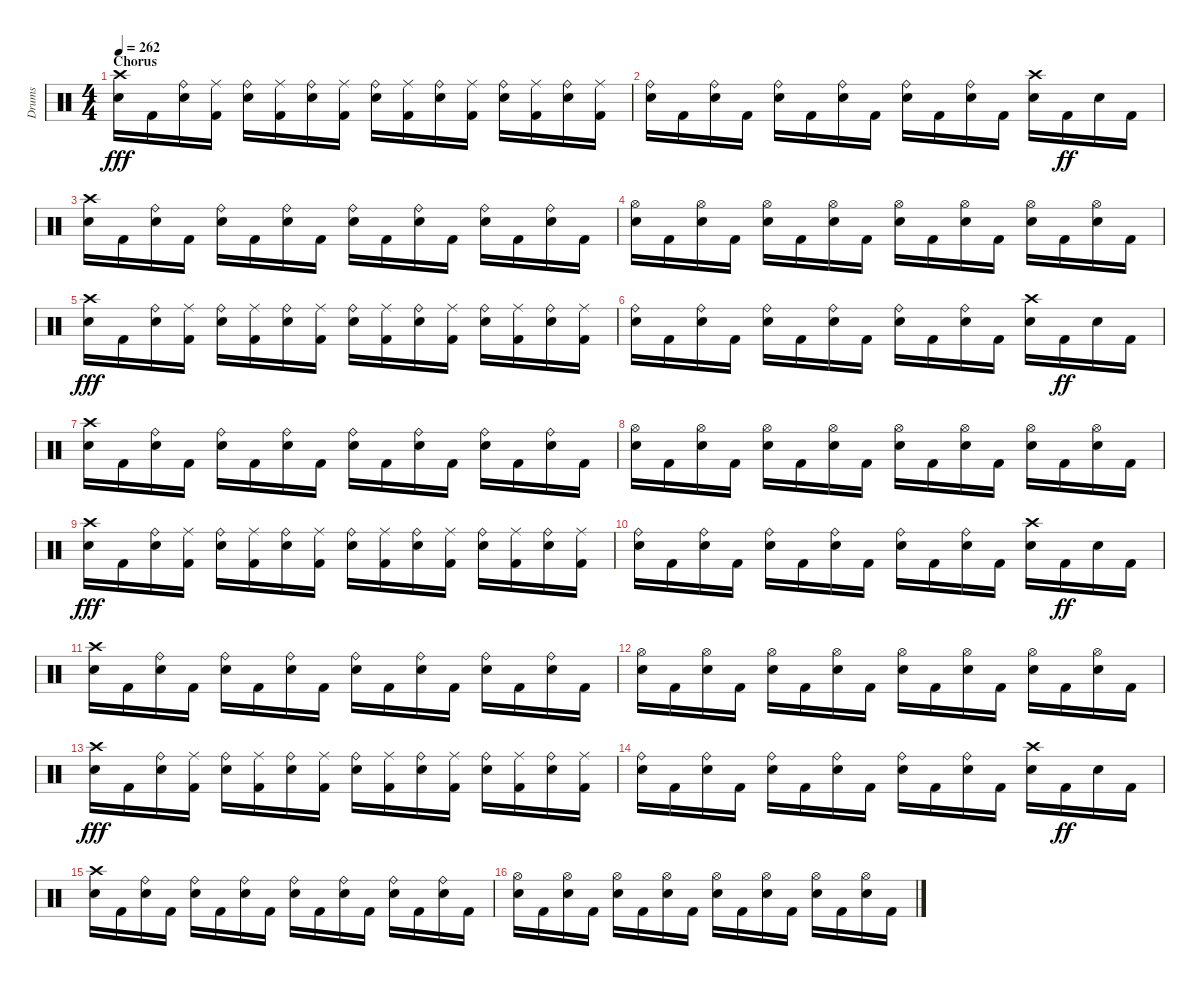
\track ("Drums" "Drums") {instrument percussion}
\staff {score}
\articulation defaults
\ts (4 4)
\section ("" "Chorus")
\tempo 262
\clef neutral
\ks c
("Crash high (hit)" "Snare (hit) 2").16{dy fff} "Kick (hit) 2".16 ("Snare (hit) 2" "Ride (bell)").16 ("Kick (hit) 2" "Ride (middle)").16 ("Snare (hit) 2" "Ride (bell)").16 ("Kick (hit) 2" "Ride (middle)").16 ("Snare (hit) 2" "Ride (bell)").16 ("Kick (hit) 2" "Ride (middle)").16 ("Snare (hit) 2" "Ride (bell)").16 ("Kick (hit) 2" "Ride (middle)").16 ("Snare (hit) 2" "Ride (bell)").16 ("Kick (hit) 2" "Ride (middle)").16 ("Snare (hit) 2" "Ride (bell)").16 ("Kick (hit) 2" "Ride (middle)").16 ("Snare (hit) 2" "Ride (bell)").16 ("Kick (hit) 2" "Ride (middle)").16 |
("Snare (hit) 2" "Ride (bell)").16 "Kick (hit) 2".16 ("Snare (hit) 2" "Ride (bell)").16 "Kick (hit) 2".16 ("Snare (hit) 2" "Ride (bell)").16 "Kick (hit) 2".16 ("Snare (hit) 2" "Ride (bell)").16 "Kick (hit) 2".16 ("Snare (hit) 2" "Ride (bell)").16 "Kick (hit) 2".16 ("Snare (hit) 2" "Ride (bell)").16 "Kick (hit) 2".16 ("Crash high (hit)" "Snare (hit) 2").16 "Kick (hit) 2".16{dy ff} "Snare (hit) 2".16 "Kick (hit) 2".16 |
("Crash high (hit)" "Snare (hit) 2").16 "Kick (hit) 2".16 ("Snare (hit) 2" "Ride (bell)").16 "Kick (hit) 2".16 ("Snare (hit) 2" "Ride (bell)").16 "Kick (hit) 2".16 ("Snare (hit) 2" "Ride (bell)").16 "Kick (hit) 2".16 ("Snare (hit) 2" "Ride (bell)").16 "Kick (hit) 2".16 ("Snare (hit) 2" "Ride (bell)").16 "Kick (hit) 2".16 ("Snare (hit) 2" "Ride (bell)").16 "Kick (hit) 2".16 ("Snare (hit) 2" "Ride (bell)").16 "Kick (hit) 2".16 |
("Hi-Hat (open)" "Snare (hit) 2").16 "Kick (hit) 2".16 ("Hi-Hat (open)" "Snare (hit) 2").16 "Kick (hit) 2".16 ("Hi-Hat (open)" "Snare (hit) 2").16 "Kick (hit) 2".16 ("Hi-Hat (open)" "Snare (hit) 2").16 "Kick (hit) 2".16 ("Hi-Hat (open)" "Snare (hit) 2").16 "Kick (hit) 2".16 ("Hi-Hat (open)" "Snare (hit) 2").16 "Kick (hit) 2".16 ("Hi-Hat (open)" "Snare (hit) 2").16 "Kick (hit) 2".16 ("Hi-Hat (open)" "Snare (hit) 2").16 "Kick (hit) 2".16 |
("Crash high (hit)" "Snare (hit) 2").16{dy fff} "Kick (hit) 2".16 ("Snare (hit) 2" "Ride (bell)").16 ("Kick (hit) 2" "Ride (middle)").16 ("Snare (hit) 2" "Ride (bell)").16 ("Kick (hit) 2" "Ride (middle)").16 ("Snare (hit) 2" "Ride (bell)").16 ("Kick (hit) 2" "Ride (middle)").16 ("Snare (hit) 2" "Ride (bell)").16 ("Kick (hit) 2" "Ride (middle)").16 ("Snare (hit) 2" "Ride (bell)").16 ("Kick (hit) 2" "Ride (middle)").16 ("Snare (hit) 2" "Ride (bell)").16 ("Kick (hit) 2" "Ride (middle)").16 ("Snare (hit) 2" "Ride (bell)").16 ("Kick (hit) 2" "Ride (middle)").16 |
("Snare (hit) 2" "Ride (bell)").16 "Kick (hit) 2".16 ("Snare (hit) 2" "Ride (bell)").16 "Kick (hit) 2".16 ("Snare (hit) 2" "Ride (bell)").16 "Kick (hit) 2".16 ("Snare (hit) 2" "Ride (bell)").16 "Kick (hit) 2".16 ("Snare (hit) 2" "Ride (bell)").16 "Kick (hit) 2".16 ("Snare (hit) 2" "Ride (bell)").16 "Kick (hit) 2".16 ("Crash high (hit)" "Snare (hit) 2").16 "Kick (hit) 2".16{dy ff} "Snare (hit) 2".16 "Kick (hit) 2".16 |
("Crash high (hit)" "Snare (hit) 2").16 "Kick (hit) 2".16 ("Snare (hit) 2" "Ride (bell)").16 "Kick (hit) 2".16 ("Snare (hit) 2" "Ride (bell)").16 "Kick (hit) 2".16 ("Snare (hit) 2" "Ride (bell)").16 "Kick (hit) 2".16 ("Snare (hit) 2" "Ride (bell)").16 "Kick (hit) 2".16 ("Snare (hit) 2" "Ride (bell)").16 "Kick (hit) 2".16 ("Snare (hit) 2" "Ride (bell)").16 "Kick (hit) 2".16 ("Snare (hit) 2" "Ride (bell)").16 "Kick (hit) 2".16 |
("Hi-Hat (open)" "Snare (hit) 2").16 "Kick (hit) 2".16 ("Hi-Hat (open)" "Snare (hit) 2").16 "Kick (hit) 2".16 ("Hi-Hat (open)" "Snare (hit) 2").16 "Kick (hit) 2".16 ("Hi-Hat (open)" "Snare (hit) 2").16 "Kick (hit) 2".16 ("Hi-Hat (open)" "Snare (hit) 2").16 "Kick (hit) 2".16 ("Hi-Hat (open)" "Snare (hit) 2").16 "Kick (hit) 2".16 ("Hi-Hat (open)" "Snare (hit) 2").16 "Kick (hit) 2".16 ("Hi-Hat (open)" "Snare (hit) 2").16 "Kick (hit) 2".16 |
("Crash high (hit)" "Snare (hit) 2").16{dy fff} "Kick (hit) 2".16 ("Snare (hit) 2" "Ride (bell)").16 ("Kick (hit) 2" "Ride (middle)").16 ("Snare (hit) 2" "Ride (bell)").16 ("Kick (hit) 2" "Ride (middle)").16 ("Snare (hit) 2" "Ride (bell)").16 ("Kick (hit) 2" "Ride (middle)").16 ("Snare (hit) 2" "Ride (bell)").16 ("Kick (hit) 2" "Ride (middle)").16 ("Snare (hit) 2" "Ride (bell)").16 ("Kick (hit) 2" "Ride (middle)").16 ("Snare (hit) 2" "Ride (bell)").16 ("Kick (hit) 2" "Ride (middle)").16 ("Snare (hit) 2" "Ride (bell)").16 ("Kick (hit) 2" "Ride (middle)").16 |
("Snare (hit) 2" "Ride (bell)").16 "Kick (hit) 2".16 ("Snare (hit) 2" "Ride (bell)").16 "Kick (hit) 2".16 ("Snare (hit) 2" "Ride (bell)").16 "Kick (hit) 2".16 ("Snare (hit) 2" "Ride (bell)").16 "Kick (hit) 2".16 ("Snare (hit) 2" "Ride (bell)").16 "Kick (hit) 2".16 ("Snare (hit) 2" "Ride (bell)").16 "Kick (hit) 2".16 ("Crash high (hit)" "Snare (hit) 2").16 "Kick (hit) 2".16{dy ff} "Snare (hit) 2".16 "Kick (hit) 2".16 |
("Crash high (hit)" "Snare (hit) 2").16 "Kick (hit) 2".16 ("Snare (hit) 2" "Ride (bell)").16 "Kick (hit) 2".16 ("Snare (hit) 2" "Ride (bell)").16 "Kick (hit) 2".16 ("Snare (hit) 2" "Ride (bell)").16 "Kick (hit) 2".16 ("Snare (hit) 2" "Ride (bell)").16 "Kick (hit) 2".16 ("Snare (hit) 2" "Ride (bell)").16 "Kick (hit) 2".16 ("Snare (hit) 2" "Ride (bell)").16 "Kick (hit) 2".16 ("Snare (hit) 2" "Ride (bell)").16 "Kick (hit) 2".16 |
("Hi-Hat (open)" "Snare (hit) 2").16 "Kick (hit) 2".16 ("Hi-Hat (open)" "Snare (hit) 2").16 "Kick (hit) 2".16 ("Hi-Hat (open)" "Snare (hit) 2").16 "Kick (hit) 2".16 ("Hi-Hat (open)" "Snare (hit) 2").16 "Kick (hit) 2".16 ("Hi-Hat (open)" "Snare (hit) 2").16 "Kick (hit) 2".16 ("Hi-Hat (open)" "Snare (hit) 2").16 "Kick (hit) 2".16 ("Hi-Hat (open)" "Snare (hit) 2").16 "Kick (hit) 2".16 ("Hi-Hat (open)" "Snare (hit) 2").16 "Kick (hit) 2".16 |
("Crash high (hit)" "Snare (hit) 2").16{dy fff} "Kick (hit) 2".16 ("Snare (hit) 2" "Ride (bell)").16 ("Kick (hit) 2" "Ride (middle)").16 ("Snare (hit) 2" "Ride (bell)").16 ("Kick (hit) 2" "Ride (middle)").16 ("Snare (hit) 2" "Ride (bell)").16 ("Kick (hit) 2" "Ride (middle)").16 ("Snare (hit) 2" "Ride (bell)").16 ("Kick (hit) 2" "Ride (middle)").16 ("Snare (hit) 2" "Ride (bell)").16 ("Kick (hit) 2" "Ride (middle)").16 ("Snare (hit) 2" "Ride (bell)").16 ("Kick (hit) 2" "Ride (middle)").16 ("Snare (hit) 2" "Ride (bell)").16 ("Kick (hit) 2" "Ride (middle)").16 |
("Snare (hit) 2" "Ride (bell)").16 "Kick (hit) 2".16 ("Snare (hit) 2" "Ride (bell)").16 "Kick (hit) 2".16 ("Snare (hit) 2" "Ride (bell)").16 "Kick (hit) 2".16 ("Snare (hit) 2" "Ride (bell)").16 "Kick (hit) 2".16 ("Snare (hit) 2" "Ride (bell)").16 "Kick (hit) 2".16 ("Snare (hit) 2" "Ride (bell)").16 "Kick (hit) 2".16 ("Crash high (hit)" "Snare (hit) 2").16 "Kick (hit) 2".16{dy ff} "Snare (hit) 2".16 "Kick (hit) 2".16 |
("Crash high (hit)" "Snare (hit) 2").16 "Kick (hit) 2".16 ("Snare (hit) 2" "Ride (bell)").16 "Kick (hit) 2".16 ("Snare (hit) 2" "Ride (bell)").16 "Kick (hit) 2".16 ("Snare (hit) 2" "Ride (bell)").16 "Kick (hit) 2".16 ("Snare (hit) 2" "Ride (bell)").16 "Kick (hit) 2".16 ("Snare (hit) 2" "Ride (bell)").16 "Kick (hit) 2".16 ("Snare (hit) 2" "Ride (bell)").16 "Kick (hit) 2".16 ("Snare (hit) 2" "Ride (bell)").16 "Kick (hit) 2".16 |
("Hi-Hat (open)" "Snare (hit) 2").16 "Kick (hit) 2".16 ("Hi-Hat (open)" "Snare (hit) 2").16 "Kick (hit) 2".16 ("Hi-Hat (open)" "Snare (hit) 2").16 "Kick (hit) 2".16 ("Hi-Hat (open)" "Snare (hit) 2").16 "Kick (hit) 2".16 ("Hi-Hat (open)" "Snare (hit) 2").16 "Kick (hit) 2".16 ("Hi-Hat (open)" "Snare (hit) 2").16 "Kick (hit) 2".16 ("Hi-Hat (open)" "Snare (hit) 2").16 "Kick (hit) 2".16 ("Hi-Hat (open)" "Snare (hit) 2").16 "Kick (hit) 2".16
